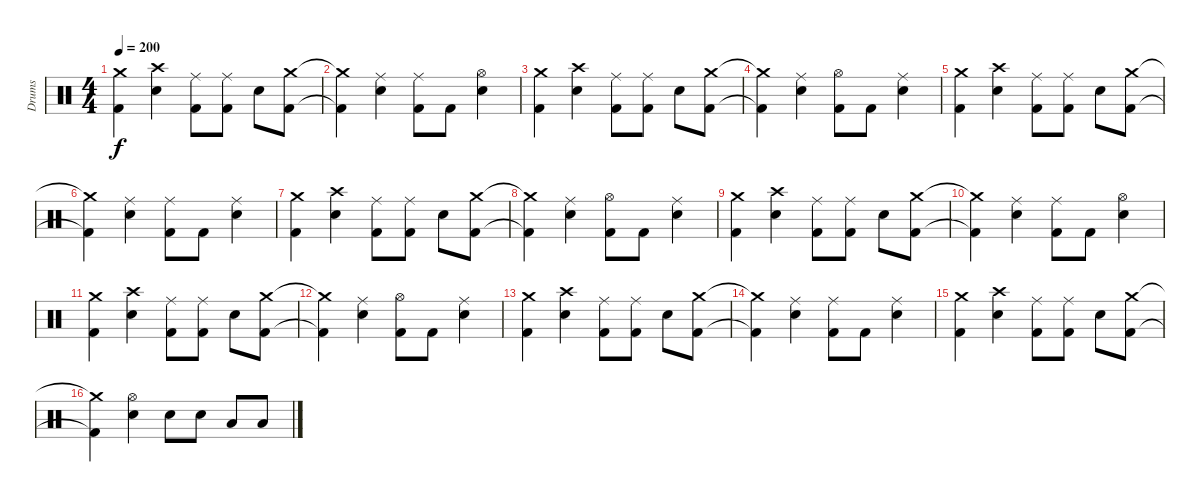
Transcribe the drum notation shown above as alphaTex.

\track ("Drums" "Drums") {instrument percussion}
\staff {score}
\articulation defaults
\ts (4 4)
\tempo 200
\clef neutral
\ks c
("Crash medium (hit)" "Kick (hit) 2").4{dy f} ("Crash high (hit)" "Electric Snare (hit)").4 ("Kick (hit) 2" "Ride (middle)").8 ("Kick (hit) 2" "Ride (middle)").8 "Electric Snare (hit)".8 ("Crash medium (hit)" "Kick (hit) 2").8 |
("Crash medium (hit)"{t} "Kick (hit) 2"{t}).4 ("Ride (middle)" "Electric Snare (hit)").4 ("Kick (hit) 2" "Ride (middle)").8 "Kick (hit) 2".8 ("Electric Snare (hit)" "Hi-Hat (open)").4 |
("Crash medium (hit)" "Kick (hit) 2").4 ("Crash high (hit)" "Electric Snare (hit)").4 ("Kick (hit) 2" "Ride (middle)").8 ("Kick (hit) 2" "Ride (middle)").8 "Electric Snare (hit)".8 ("Crash medium (hit)" "Kick (hit) 2").8 |
("Crash medium (hit)"{t} "Kick (hit) 2"{t}).4 ("Ride (middle)" "Electric Snare (hit)").4 ("Kick (hit) 2" "Hi-Hat (open)").8 "Kick (hit) 2".8 ("Electric Snare (hit)" "Ride (middle)").4 |
("Crash medium (hit)" "Kick (hit) 2").4 ("Crash high (hit)" "Electric Snare (hit)").4 ("Kick (hit) 2" "Ride (middle)").8 ("Kick (hit) 2" "Ride (middle)").8 "Electric Snare (hit)".8 ("Crash medium (hit)" "Kick (hit) 2").8 |
("Crash medium (hit)"{t} "Kick (hit) 2"{t}).4 ("Ride (middle)" "Electric Snare (hit)").4 ("Kick (hit) 2" "Ride (middle)").8 "Kick (hit) 2".8 ("Electric Snare (hit)" "Ride (middle)").4 |
("Crash medium (hit)" "Kick (hit) 2").4 ("Crash high (hit)" "Electric Snare (hit)").4 ("Kick (hit) 2" "Ride (middle)").8 ("Kick (hit) 2" "Ride (middle)").8 "Electric Snare (hit)".8 ("Crash medium (hit)" "Kick (hit) 2").8 |
("Crash medium (hit)"{t} "Kick (hit) 2"{t}).4 ("Ride (middle)" "Electric Snare (hit)").4 ("Kick (hit) 2" "Hi-Hat (open)").8 "Kick (hit) 2".8 ("Electric Snare (hit)" "Ride (middle)").4 |
("Crash medium (hit)" "Kick (hit) 2").4 ("Crash high (hit)" "Electric Snare (hit)").4 ("Kick (hit) 2" "Ride (middle)").8 ("Kick (hit) 2" "Ride (middle)").8 "Electric Snare (hit)".8 ("Crash medium (hit)" "Kick (hit) 2").8 |
("Crash medium (hit)"{t} "Kick (hit) 2"{t}).4 ("Ride (middle)" "Electric Snare (hit)").4 ("Kick (hit) 2" "Ride (middle)").8 "Kick (hit) 2".8 ("Electric Snare (hit)" "Hi-Hat (open)").4 |
("Crash medium (hit)" "Kick (hit) 2").4 ("Crash high (hit)" "Electric Snare (hit)").4 ("Kick (hit) 2" "Ride (middle)").8 ("Kick (hit) 2" "Ride (middle)").8 "Electric Snare (hit)".8 ("Crash medium (hit)" "Kick (hit) 2").8 |
("Crash medium (hit)"{t} "Kick (hit) 2"{t}).4 ("Ride (middle)" "Electric Snare (hit)").4 ("Kick (hit) 2" "Hi-Hat (open)").8 "Kick (hit) 2".8 ("Electric Snare (hit)" "Ride (middle)").4 |
("Crash medium (hit)" "Kick (hit) 2").4 ("Crash high (hit)" "Electric Snare (hit)").4 ("Kick (hit) 2" "Ride (middle)").8 ("Kick (hit) 2" "Ride (middle)").8 "Electric Snare (hit)".8 ("Crash medium (hit)" "Kick (hit) 2").8 |
("Crash medium (hit)"{t} "Kick (hit) 2"{t}).4 ("Ride (middle)" "Electric Snare (hit)").4 ("Kick (hit) 2" "Ride (middle)").8 "Kick (hit) 2".8 ("Electric Snare (hit)" "Ride (middle)").4 |
("Crash medium (hit)" "Kick (hit) 2").4 ("Crash high (hit)" "Electric Snare (hit)").4 ("Kick (hit) 2" "Ride (middle)").8 ("Kick (hit) 2" "Ride (middle)").8 "Electric Snare (hit)".8 ("Crash medium (hit)" "Kick (hit) 2").8 |
("Crash medium (hit)"{t} "Kick (hit) 2"{t}).4 ("Hi-Hat (open)" "Electric Snare (hit)").4 "Electric Snare (hit)".8 "Electric Snare (hit)".8 "Low Tom (hit)".8 "Low Tom (hit)".8
